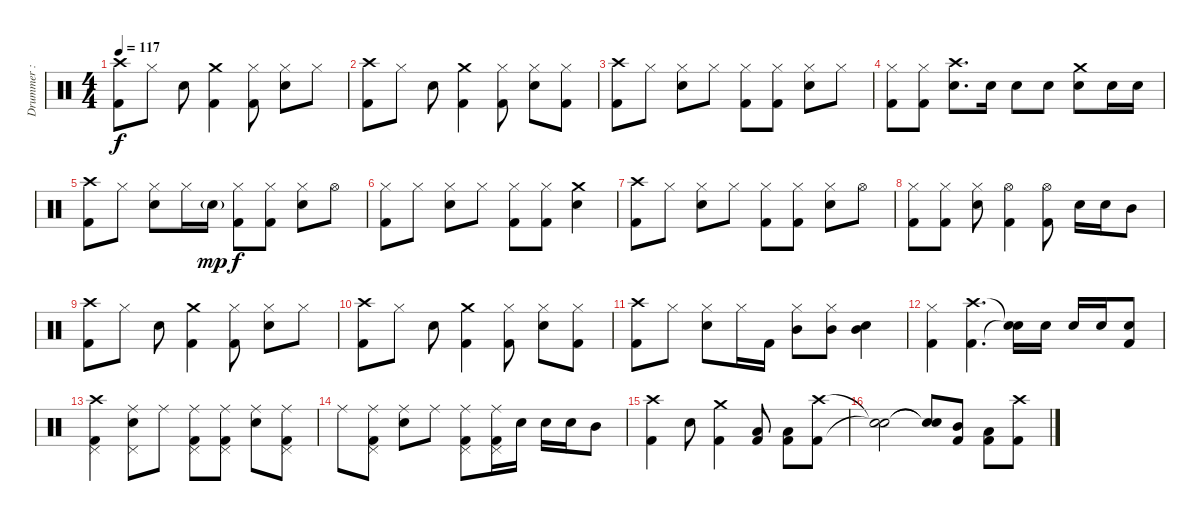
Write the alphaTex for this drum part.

\track ("Drummer : Tainaka Ritsu - San" "Drummer : ") {instrument percussion}
\staff {score}
\articulation defaults
\ts (4 4)
\tempo 117
\clef neutral
\ks c
("Crash high (hit)" "Kick (hit) 2").8{dy f} "Hi-Hat (closed)".8 "Snare (hit) 2".8 ("Crash medium (hit)" "Kick (hit) 2").4 ("Hi-Hat (closed)" "Kick (hit) 2").8 ("Hi-Hat (closed)" "Snare (hit) 2").8 "Hi-Hat (closed)".8 |
("Crash high (hit)" "Kick (hit) 2").8 "Hi-Hat (closed)".8 "Snare (hit) 2".8 ("Crash medium (hit)" "Kick (hit) 2").4 ("Hi-Hat (closed)" "Kick (hit) 2").8 ("Hi-Hat (closed)" "Snare (hit) 2").8 ("Hi-Hat (closed)" "Kick (hit) 2").8 |
("Crash high (hit)" "Kick (hit) 2").8 "Hi-Hat (closed)".8 ("Hi-Hat (closed)" "Snare (hit) 2").8 "Hi-Hat (closed)".8 ("Hi-Hat (closed)" "Kick (hit) 2").8 ("Hi-Hat (closed)" "Kick (hit) 2").8 ("Hi-Hat (closed)" "Snare (hit) 2").8 "Hi-Hat (closed)".8 |
("Hi-Hat (closed)" "Kick (hit) 2").8 ("Hi-Hat (closed)" "Kick (hit) 2").8 ("Crash high (hit)" "Snare (hit) 2").8{d} "Snare (hit) 2".16 "Snare (hit) 2".8 "Snare (hit) 2".8 ("Crash medium (hit)" "Snare (hit) 2").8 "Snare (hit) 2".16 "Snare (hit) 2".16 |
("Crash high (hit)" "Kick (hit) 2").8 "Hi-Hat (closed)".8 ("Hi-Hat (closed)" "Snare (hit) 2").8 "Hi-Hat (closed)".16 "Snare (hit) 2"{g}.16{dy mp} ("Hi-Hat (closed)" "Kick (hit) 2").8{dy f} ("Hi-Hat (closed)" "Kick (hit) 2").8 ("Hi-Hat (closed)" "Snare (hit) 2").8 "Hi-Hat (open)".8 |
("Hi-Hat (closed)" "Kick (hit) 2").8 "Hi-Hat (closed)".8 ("Hi-Hat (closed)" "Snare (hit) 2").8 "Hi-Hat (closed)".8 ("Hi-Hat (closed)" "Kick (hit) 2").8 ("Hi-Hat (closed)" "Kick (hit) 2").8 ("Crash medium (hit)" "Snare (hit) 2").4 |
("Crash high (hit)" "Kick (hit) 2").8 "Hi-Hat (closed)".8 ("Hi-Hat (closed)" "Snare (hit) 2").8 "Hi-Hat (closed)".8 ("Hi-Hat (closed)" "Kick (hit) 2").8 ("Hi-Hat (closed)" "Kick (hit) 2").8 ("Hi-Hat (closed)" "Snare (hit) 2").8 "Hi-Hat (open)".8 |
("Hi-Hat (closed)" "Kick (hit) 2").8 ("Hi-Hat (closed)" "Kick (hit) 2").8 ("Hi-Hat (closed)" "Snare (hit) 2").8 ("Hi-Hat (open)" "Kick (hit) 2").4 ("Hi-Hat (open)" "Kick (hit) 2").8 "Snare (hit) 2".16 "Snare (hit) 2".16 "Mid Tom (hit)".8 |
("Crash high (hit)" "Kick (hit) 2").8 "Hi-Hat (closed)".8 "Snare (hit) 2".8 ("Crash medium (hit)" "Kick (hit) 2").4 ("Hi-Hat (closed)" "Kick (hit) 2").8 ("Hi-Hat (closed)" "Snare (hit) 2").8 "Hi-Hat (closed)".8 |
("Crash high (hit)" "Kick (hit) 2").8 "Hi-Hat (closed)".8 "Snare (hit) 2".8 ("Crash medium (hit)" "Kick (hit) 2").4 ("Hi-Hat (closed)" "Kick (hit) 2").8 ("Hi-Hat (closed)" "Snare (hit) 2").8 ("Hi-Hat (closed)" "Kick (hit) 2").8 |
("Crash high (hit)" "Kick (hit) 2").8 "Hi-Hat (closed)".8 ("Hi-Hat (closed)" "Snare (hit) 2").8 "Hi-Hat (closed)".16 "Kick (hit) 2".16 ("Mid Tom (hit)" "Hi-Hat (closed)").8 ("Mid Tom (hit)" "Hi-Hat (closed)").8 ("Mid Tom (hit)" "Snare (hit) 2").4 |
("Hi-Hat (closed)" "Kick (hit) 2").4 ("Crash high (hit)" "Kick (hit) 2").4{d} ("Snare (hit)"{t} "Snare (hit)"{t}).16 "Snare (hit) 2".16 "Snare (hit) 2".16 "Snare (hit) 2".16 ("Snare (hit) 2" "Kick (hit) 2").8 |
("Crash high (hit)" "Pedal Hi-Hat (hit)" "Kick (hit) 2").4 ("Ride (middle)" "Pedal Hi-Hat (hit)" "Snare (hit) 2").8 "Ride (middle)".8 ("Ride (middle)" "Pedal Hi-Hat (hit)" "Kick (hit) 2").8 ("Ride (middle)" "Pedal Hi-Hat (hit)" "Kick (hit) 2").8 ("Ride (middle)" "Snare (hit) 2").8 ("Ride (middle)" "Pedal Hi-Hat (hit)" "Kick (hit) 2").8 |
"Ride (middle)".8 ("Ride (middle)" "Pedal Hi-Hat (hit)" "Kick (hit) 2").8 ("Ride (middle)" "Snare (hit) 2").8 "Ride (middle)".8 ("Ride (middle)" "Pedal Hi-Hat (hit)" "Kick (hit) 2").8 ("Ride (middle)" "Pedal Hi-Hat (hit)" "Kick (hit) 2").16 "Snare (hit) 2".16 "Snare (hit) 2".16 "Snare (hit) 2".16 "Mid Tom (hit)".8 |
("Crash high (hit)" "Kick (hit) 2").4 "Snare (hit) 2".8 ("Crash medium (hit)" "Kick (hit) 2").4 ("Low Tom (hit)" "Kick (hit) 2").8 ("Low Tom (hit)" "Kick (hit) 2").8 ("Crash high (hit)" "Kick (hit) 2").8 |
("Snare (hit)"{t} "Snare (hit)"{t}).2 ("Snare (hit)"{t} "Snare (hit)"{t}).8 ("Mid Tom (hit)" "Kick (hit) 2").8 ("Low Tom (hit)" "Kick (hit) 2").8 ("Crash high (hit)" "Kick (hit) 2").8
